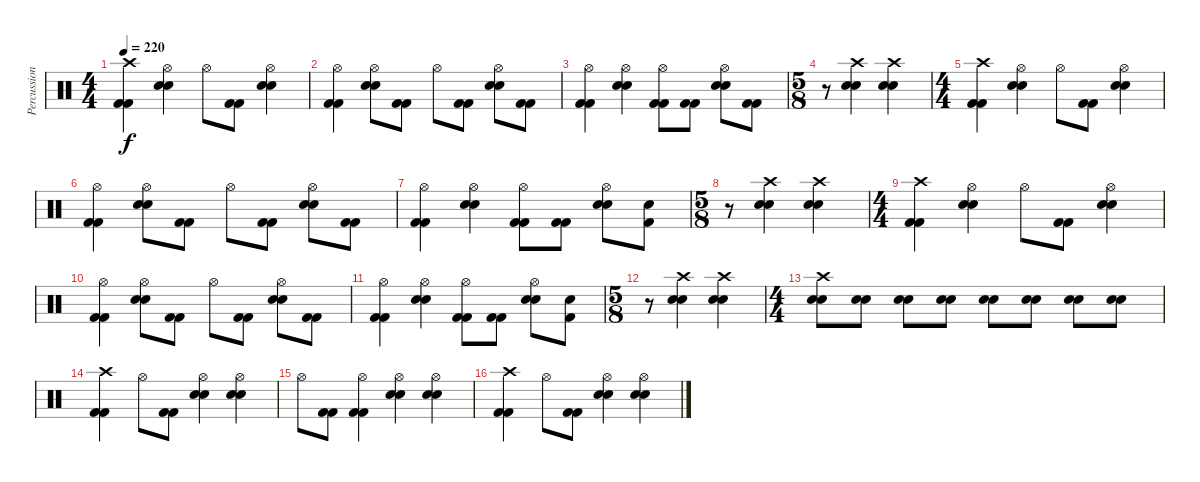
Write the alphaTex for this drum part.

\track ("Percussion" "Percussion") {instrument percussion}
\staff {score}
\articulation defaults
\ts (4 4)
\tempo 220
\clef neutral
\ks c
("Crash high (hit)" "Kick (hit) 2" "Kick (hit) 2").4{dy f} ("Hi-Hat (open)" "Electric Snare (hit)" "Electric Snare (hit)").4 "Hi-Hat (open)".8 ("Kick (hit) 2" "Kick (hit) 2").8 ("Hi-Hat (open)" "Electric Snare (hit)" "Electric Snare (hit)").4 |
("Hi-Hat (open)" "Kick (hit) 2" "Kick (hit) 2").4 ("Hi-Hat (open)" "Electric Snare (hit)" "Electric Snare (hit)").8 ("Kick (hit) 2" "Kick (hit) 2").8 "Hi-Hat (open)".8 ("Kick (hit) 2" "Kick (hit) 2").8 ("Hi-Hat (open)" "Electric Snare (hit)" "Electric Snare (hit)").8 ("Kick (hit) 2" "Kick (hit) 2").8 |
("Hi-Hat (open)" "Kick (hit) 2" "Kick (hit) 2").4 ("Hi-Hat (open)" "Electric Snare (hit)" "Electric Snare (hit)").4 ("Hi-Hat (open)" "Kick (hit) 2" "Kick (hit) 2").8 ("Kick (hit) 2" "Kick (hit) 2").8 ("Hi-Hat (open)" "Electric Snare (hit)" "Electric Snare (hit)").8 ("Kick (hit) 2" "Kick (hit) 2").8 |
\ts (5 8)
r.8 ("Crash high (hit)" "Electric Snare (hit)" "Electric Snare (hit)").4 ("Crash high (hit)" "Electric Snare (hit)" "Electric Snare (hit)").4 |
\ts (4 4)
("Crash high (hit)" "Kick (hit) 2" "Kick (hit) 2").4 ("Hi-Hat (open)" "Electric Snare (hit)" "Electric Snare (hit)").4 "Hi-Hat (open)".8 ("Kick (hit) 2" "Kick (hit) 2").8 ("Hi-Hat (open)" "Electric Snare (hit)" "Electric Snare (hit)").4 |
("Hi-Hat (open)" "Kick (hit) 2" "Kick (hit) 2").4 ("Hi-Hat (open)" "Electric Snare (hit)" "Electric Snare (hit)").8 ("Kick (hit) 2" "Kick (hit) 2").8 "Hi-Hat (open)".8 ("Kick (hit) 2" "Kick (hit) 2").8 ("Hi-Hat (open)" "Electric Snare (hit)" "Electric Snare (hit)").8 ("Kick (hit) 2" "Kick (hit) 2").8 |
("Hi-Hat (open)" "Kick (hit) 2" "Kick (hit) 2").4 ("Hi-Hat (open)" "Electric Snare (hit)" "Electric Snare (hit)").4 ("Hi-Hat (open)" "Kick (hit) 2" "Kick (hit) 2").8 ("Kick (hit) 2" "Kick (hit) 2").8 ("Hi-Hat (open)" "Electric Snare (hit)" "Electric Snare (hit)").8 ("Kick (hit) 2" "Snare (hit)").8 |
\ts (5 8)
r.8 ("Crash high (hit)" "Electric Snare (hit)" "Electric Snare (hit)").4 ("Crash high (hit)" "Electric Snare (hit)" "Electric Snare (hit)").4 |
\ts (4 4)
("Crash high (hit)" "Kick (hit) 2" "Kick (hit) 2").4 ("Hi-Hat (open)" "Electric Snare (hit)" "Electric Snare (hit)").4 "Hi-Hat (open)".8 ("Kick (hit) 2" "Kick (hit) 2").8 ("Hi-Hat (open)" "Electric Snare (hit)" "Electric Snare (hit)").4 |
("Hi-Hat (open)" "Kick (hit) 2" "Kick (hit) 2").4 ("Hi-Hat (open)" "Electric Snare (hit)" "Electric Snare (hit)").8 ("Kick (hit) 2" "Kick (hit) 2").8 "Hi-Hat (open)".8 ("Kick (hit) 2" "Kick (hit) 2").8 ("Hi-Hat (open)" "Electric Snare (hit)" "Electric Snare (hit)").8 ("Kick (hit) 2" "Kick (hit) 2").8 |
("Hi-Hat (open)" "Kick (hit) 2" "Kick (hit) 2").4 ("Hi-Hat (open)" "Electric Snare (hit)" "Electric Snare (hit)").4 ("Hi-Hat (open)" "Kick (hit) 2" "Kick (hit) 2").8 ("Kick (hit) 2" "Kick (hit) 2").8 ("Hi-Hat (open)" "Electric Snare (hit)" "Electric Snare (hit)").8 ("Kick (hit) 2" "Snare (hit)").8 |
\ts (5 8)
r.8 ("Crash high (hit)" "Electric Snare (hit)" "Electric Snare (hit)").4 ("Crash high (hit)" "Electric Snare (hit)" "Electric Snare (hit)").4 |
\ts (4 4)
("Crash high (hit)" "Electric Snare (hit)" "Electric Snare (hit)").8 ("Electric Snare (hit)" "Electric Snare (hit)").8 ("Electric Snare (hit)" "Electric Snare (hit)").8 ("Electric Snare (hit)" "Electric Snare (hit)").8 ("Electric Snare (hit)" "Electric Snare (hit)").8 ("Electric Snare (hit)" "Electric Snare (hit)").8 ("Electric Snare (hit)" "Electric Snare (hit)").8 ("Electric Snare (hit)" "Electric Snare (hit)").8 |
("Crash high (hit)" "Kick (hit) 2" "Kick (hit) 2").4 "Hi-Hat (open)".8 ("Kick (hit) 2" "Kick (hit) 2").8 ("Hi-Hat (open)" "Electric Snare (hit)" "Electric Snare (hit)").4 ("Hi-Hat (open)" "Electric Snare (hit)" "Electric Snare (hit)").4 |
"Hi-Hat (open)".8 ("Kick (hit) 2" "Kick (hit) 2").8 ("Hi-Hat (open)" "Kick (hit) 2" "Kick (hit) 2").4 ("Hi-Hat (open)" "Electric Snare (hit)" "Electric Snare (hit)").4 ("Hi-Hat (open)" "Electric Snare (hit)" "Electric Snare (hit)").4 |
("Crash high (hit)" "Kick (hit) 2" "Kick (hit) 2").4 "Hi-Hat (open)".8 ("Kick (hit) 2" "Kick (hit) 2").8 ("Hi-Hat (open)" "Electric Snare (hit)" "Electric Snare (hit)").4 ("Hi-Hat (open)" "Electric Snare (hit)" "Electric Snare (hit)").4
